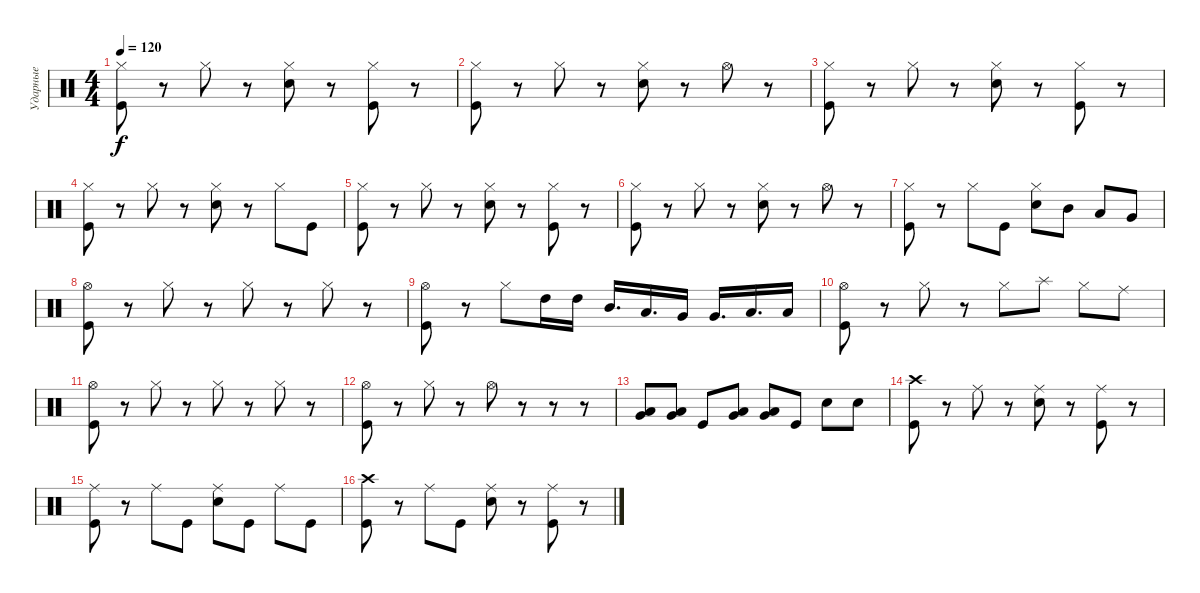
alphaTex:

\track ("Ударные" "Ударные") {instrument percussion}
\staff {score}
\articulation defaults
\ts (4 4)
\tempo 120
\clef neutral
\ks c
("Hi-Hat (closed)" "Kick (hit)").8{dy f} r.8 "Hi-Hat (closed)".8 r.8 ("Hi-Hat (closed)" "Snare (hit) 2").8 r.8 ("Hi-Hat (closed)" "Kick (hit)").8 r.8 |
("Hi-Hat (closed)" "Kick (hit)").8 r.8 "Hi-Hat (closed)".8 r.8 ("Hi-Hat (closed)" "Snare (hit) 2").8 r.8 "Hi-Hat (open)".8 r.8 |
("Hi-Hat (closed)" "Kick (hit)").8 r.8 "Hi-Hat (closed)".8 r.8 ("Hi-Hat (closed)" "Snare (hit) 2").8 r.8 ("Hi-Hat (closed)" "Kick (hit)").8 r.8 |
("Hi-Hat (closed)" "Kick (hit)").8 r.8 "Hi-Hat (closed)".8 r.8 ("Hi-Hat (closed)" "Snare (hit) 2").8 r.8 "Hi-Hat (closed)".8 "Kick (hit)".8 |
("Hi-Hat (closed)" "Kick (hit)").8 r.8 "Hi-Hat (closed)".8 r.8 ("Hi-Hat (closed)" "Snare (hit) 2").8 r.8 ("Hi-Hat (closed)" "Kick (hit)").8 r.8 |
("Hi-Hat (closed)" "Kick (hit)").8 r.8 "Hi-Hat (closed)".8 r.8 ("Hi-Hat (closed)" "Snare (hit) 2").8 r.8 "Hi-Hat (open)".8 r.8 |
("Hi-Hat (closed)" "Kick (hit)").8 r.8 "Hi-Hat (closed)".8 "Kick (hit)".8 ("Hi-Hat (closed)" "Snare (hit) 2").8 "Mid Tom (hit)".8 "Low Tom (hit)".8 "Very Low Tom (hit)".8 |
("Hi-Hat (open)" "Kick (hit)").8 r.8 "Hi-Hat (closed)".8 r.8 "Hi-Hat (closed)".8 r.8 "Hi-Hat (closed)".8 r.8 |
("Hi-Hat (open)" "Kick (hit)").8 r.8 "Hi-Hat (closed)".8 "High Tom (hit)".16 "High Tom (hit)".16 "Mid Tom (hit)".16{d} "Low Tom (hit)".16{d} "Very Low Tom (hit)".16 "Very Low Tom (hit)".16{d} "Low Floor Tom (hit)".16{d} "Low Floor Tom (hit)".16 |
("Hi-Hat (open)" "Kick (hit)").8 r.8 "Hi-Hat (closed)".8 r.8 "Hi-Hat (closed)".8 "Splash (hit)".8 "Hi-Hat (closed)".8 "Ride (middle)".8 |
("Hi-Hat (open)" "Kick (hit)").8 r.8 "Hi-Hat (closed)".8 r.8 "Hi-Hat (closed)".8 r.8 "Hi-Hat (closed)".8 r.8 |
("Hi-Hat (open)" "Kick (hit)").8 r.8 "Hi-Hat (closed)".8 r.8 "Hi-Hat (open)".8 r.8 r.8 r.8 |
("Low Tom (hit)" "Very Low Tom (hit)").8 ("Low Tom (hit)" "Very Low Tom (hit)").8 "Kick (hit)".8 ("Low Tom (hit)" "Very Low Tom (hit)").8 ("Low Tom (hit)" "Very Low Tom (hit)").8 "Kick (hit)".8 "Snare (hit) 2".8 "Snare (hit) 2".8 |
("Crash high (hit)" "Kick (hit)").8 r.8 "Ride (middle)".8 r.8 ("Ride (middle)" "Snare (hit) 2").8 r.8 ("Ride (middle)" "Kick (hit)").8 r.8 |
("Ride (middle)" "Kick (hit)").8 r.8 "Ride (middle)".8 "Kick (hit)".8 ("Ride (middle)" "Snare (hit) 2").8 "Kick (hit)".8 "Ride (middle)".8 "Kick (hit)".8 |
("Crash high (hit)" "Kick (hit)").8 r.8 "Ride (middle)".8 "Kick (hit)".8 ("Ride (middle)" "Snare (hit) 2").8 r.8 ("Ride (middle)" "Kick (hit)").8 r.8
